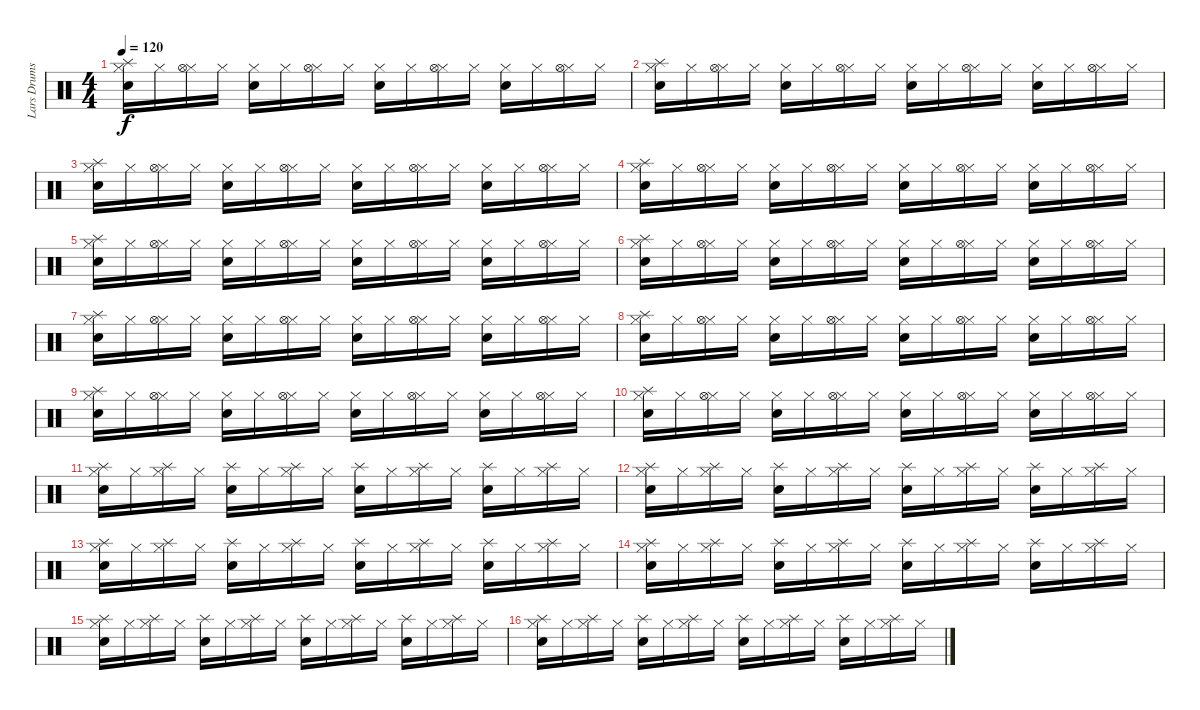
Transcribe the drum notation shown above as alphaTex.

\track ("Lars Drums" "Lars Drums") {instrument percussion}
\staff {score}
\articulation defaults
\ts (4 4)
\tempo 120
\clef neutral
\ks c
("Hi-Hat (closed)" "Snare (hit) 2" "Splash (hit)").16{dy f} "Hi-Hat (closed)".16 ("Hi-Hat (closed)" "Hi-Hat (open)").16 "Hi-Hat (closed)".16 ("Hi-Hat (closed)" "Snare (hit) 2").16 "Hi-Hat (closed)".16 ("Hi-Hat (closed)" "Hi-Hat (open)").16 "Hi-Hat (closed)".16 ("Hi-Hat (closed)" "Snare (hit) 2").16 "Hi-Hat (closed)".16 ("Hi-Hat (closed)" "Hi-Hat (open)").16 "Hi-Hat (closed)".16 ("Hi-Hat (closed)" "Snare (hit) 2").16 "Hi-Hat (closed)".16 ("Hi-Hat (closed)" "Hi-Hat (open)").16 "Hi-Hat (closed)".16 |
("Hi-Hat (closed)" "Snare (hit) 2" "Splash (hit)").16 "Hi-Hat (closed)".16 ("Hi-Hat (closed)" "Hi-Hat (open)").16 "Hi-Hat (closed)".16 ("Hi-Hat (closed)" "Snare (hit) 2").16 "Hi-Hat (closed)".16 ("Hi-Hat (closed)" "Hi-Hat (open)").16 "Hi-Hat (closed)".16 ("Hi-Hat (closed)" "Snare (hit) 2").16 "Hi-Hat (closed)".16 ("Hi-Hat (closed)" "Hi-Hat (open)").16 "Hi-Hat (closed)".16 ("Hi-Hat (closed)" "Snare (hit) 2").16 "Hi-Hat (closed)".16 ("Hi-Hat (closed)" "Hi-Hat (open)").16 "Hi-Hat (closed)".16 |
("Hi-Hat (closed)" "Snare (hit) 2" "Splash (hit)").16 "Hi-Hat (closed)".16 ("Hi-Hat (closed)" "Hi-Hat (open)").16 "Hi-Hat (closed)".16 ("Hi-Hat (closed)" "Snare (hit) 2").16 "Hi-Hat (closed)".16 ("Hi-Hat (closed)" "Hi-Hat (open)").16 "Hi-Hat (closed)".16 ("Hi-Hat (closed)" "Snare (hit) 2").16 "Hi-Hat (closed)".16 ("Hi-Hat (closed)" "Hi-Hat (open)").16 "Hi-Hat (closed)".16 ("Hi-Hat (closed)" "Snare (hit) 2").16 "Hi-Hat (closed)".16 ("Hi-Hat (closed)" "Hi-Hat (open)").16 "Hi-Hat (closed)".16 |
("Hi-Hat (closed)" "Snare (hit) 2" "Splash (hit)").16 "Hi-Hat (closed)".16 ("Hi-Hat (closed)" "Hi-Hat (open)").16 "Hi-Hat (closed)".16 ("Hi-Hat (closed)" "Snare (hit) 2").16 "Hi-Hat (closed)".16 ("Hi-Hat (closed)" "Hi-Hat (open)").16 "Hi-Hat (closed)".16 ("Hi-Hat (closed)" "Snare (hit) 2").16 "Hi-Hat (closed)".16 ("Hi-Hat (closed)" "Hi-Hat (open)").16 "Hi-Hat (closed)".16 ("Hi-Hat (closed)" "Snare (hit) 2").16 "Hi-Hat (closed)".16 ("Hi-Hat (closed)" "Hi-Hat (open)").16 "Hi-Hat (closed)".16 |
("Hi-Hat (closed)" "Snare (hit) 2" "Splash (hit)").16 "Hi-Hat (closed)".16 ("Hi-Hat (closed)" "Hi-Hat (open)").16 "Hi-Hat (closed)".16 ("Hi-Hat (closed)" "Snare (hit) 2").16 "Hi-Hat (closed)".16 ("Hi-Hat (closed)" "Hi-Hat (open)").16 "Hi-Hat (closed)".16 ("Hi-Hat (closed)" "Snare (hit) 2").16 "Hi-Hat (closed)".16 ("Hi-Hat (closed)" "Hi-Hat (open)").16 "Hi-Hat (closed)".16 ("Hi-Hat (closed)" "Snare (hit) 2").16 "Hi-Hat (closed)".16 ("Hi-Hat (closed)" "Hi-Hat (open)").16 "Hi-Hat (closed)".16 |
("Hi-Hat (closed)" "Snare (hit) 2" "Splash (hit)").16 "Hi-Hat (closed)".16 ("Hi-Hat (closed)" "Hi-Hat (open)").16 "Hi-Hat (closed)".16 ("Hi-Hat (closed)" "Snare (hit) 2").16 "Hi-Hat (closed)".16 ("Hi-Hat (closed)" "Hi-Hat (open)").16 "Hi-Hat (closed)".16 ("Hi-Hat (closed)" "Snare (hit) 2").16 "Hi-Hat (closed)".16 ("Hi-Hat (closed)" "Hi-Hat (open)").16 "Hi-Hat (closed)".16 ("Hi-Hat (closed)" "Snare (hit) 2").16 "Hi-Hat (closed)".16 ("Hi-Hat (closed)" "Hi-Hat (open)").16 "Hi-Hat (closed)".16 |
("Hi-Hat (closed)" "Snare (hit) 2" "Splash (hit)").16 "Hi-Hat (closed)".16 ("Hi-Hat (closed)" "Hi-Hat (open)").16 "Hi-Hat (closed)".16 ("Hi-Hat (closed)" "Snare (hit) 2").16 "Hi-Hat (closed)".16 ("Hi-Hat (closed)" "Hi-Hat (open)").16 "Hi-Hat (closed)".16 ("Hi-Hat (closed)" "Snare (hit) 2").16 "Hi-Hat (closed)".16 ("Hi-Hat (closed)" "Hi-Hat (open)").16 "Hi-Hat (closed)".16 ("Hi-Hat (closed)" "Snare (hit) 2").16 "Hi-Hat (closed)".16 ("Hi-Hat (closed)" "Hi-Hat (open)").16 "Hi-Hat (closed)".16 |
("Hi-Hat (closed)" "Snare (hit) 2" "Splash (hit)").16 "Hi-Hat (closed)".16 ("Hi-Hat (closed)" "Hi-Hat (open)").16 "Hi-Hat (closed)".16 ("Hi-Hat (closed)" "Snare (hit) 2").16 "Hi-Hat (closed)".16 ("Hi-Hat (closed)" "Hi-Hat (open)").16 "Hi-Hat (closed)".16 ("Hi-Hat (closed)" "Snare (hit) 2").16 "Hi-Hat (closed)".16 ("Hi-Hat (closed)" "Hi-Hat (open)").16 "Hi-Hat (closed)".16 ("Hi-Hat (closed)" "Snare (hit) 2").16 "Hi-Hat (closed)".16 ("Hi-Hat (closed)" "Hi-Hat (open)").16 "Hi-Hat (closed)".16 |
("Hi-Hat (closed)" "Snare (hit) 2" "Splash (hit)").16 "Hi-Hat (closed)".16 ("Hi-Hat (closed)" "Hi-Hat (open)").16 "Hi-Hat (closed)".16 ("Hi-Hat (closed)" "Snare (hit) 2").16 "Hi-Hat (closed)".16 ("Hi-Hat (closed)" "Hi-Hat (open)").16 "Hi-Hat (closed)".16 ("Hi-Hat (closed)" "Snare (hit) 2").16 "Hi-Hat (closed)".16 ("Hi-Hat (closed)" "Hi-Hat (open)").16 "Hi-Hat (closed)".16 ("Hi-Hat (closed)" "Snare (hit) 2").16 "Hi-Hat (closed)".16 ("Hi-Hat (closed)" "Hi-Hat (open)").16 "Hi-Hat (closed)".16 |
("Hi-Hat (closed)" "Snare (hit) 2" "Splash (hit)").16 "Hi-Hat (closed)".16 ("Hi-Hat (closed)" "Hi-Hat (open)").16 "Hi-Hat (closed)".16 ("Hi-Hat (closed)" "Snare (hit) 2").16 "Hi-Hat (closed)".16 ("Hi-Hat (closed)" "Hi-Hat (open)").16 "Hi-Hat (closed)".16 ("Hi-Hat (closed)" "Snare (hit) 2").16 "Hi-Hat (closed)".16 ("Hi-Hat (closed)" "Hi-Hat (open)").16 "Hi-Hat (closed)".16 ("Hi-Hat (closed)" "Snare (hit) 2").16 "Hi-Hat (closed)".16 ("Hi-Hat (closed)" "Hi-Hat (open)").16 "Hi-Hat (closed)".16 |
("Hi-Hat (closed)" "Snare (hit) 2" "Splash (hit)").16 "Hi-Hat (closed)".16 ("Hi-Hat (closed)" "Splash (hit)").16 "Hi-Hat (closed)".16 ("Splash (hit)" "Snare (hit) 2").16 "Hi-Hat (closed)".16 ("Hi-Hat (closed)" "Splash (hit)").16 "Hi-Hat (closed)".16 ("Splash (hit)" "Snare (hit) 2").16 "Hi-Hat (closed)".16 ("Hi-Hat (closed)" "Splash (hit)").16 "Hi-Hat (closed)".16 ("Splash (hit)" "Snare (hit) 2").16 "Hi-Hat (closed)".16 ("Hi-Hat (closed)" "Splash (hit)").16 "Hi-Hat (closed)".16 |
("Hi-Hat (closed)" "Snare (hit) 2" "Splash (hit)").16 "Hi-Hat (closed)".16 ("Hi-Hat (closed)" "Splash (hit)").16 "Hi-Hat (closed)".16 ("Splash (hit)" "Snare (hit) 2").16 "Hi-Hat (closed)".16 ("Hi-Hat (closed)" "Splash (hit)").16 "Hi-Hat (closed)".16 ("Splash (hit)" "Snare (hit) 2").16 "Hi-Hat (closed)".16 ("Hi-Hat (closed)" "Splash (hit)").16 "Hi-Hat (closed)".16 ("Splash (hit)" "Snare (hit) 2").16 "Hi-Hat (closed)".16 ("Hi-Hat (closed)" "Splash (hit)").16 "Hi-Hat (closed)".16 |
("Hi-Hat (closed)" "Snare (hit) 2" "Splash (hit)").16 "Hi-Hat (closed)".16 ("Hi-Hat (closed)" "Splash (hit)").16 "Hi-Hat (closed)".16 ("Splash (hit)" "Snare (hit) 2").16 "Hi-Hat (closed)".16 ("Hi-Hat (closed)" "Splash (hit)").16 "Hi-Hat (closed)".16 ("Splash (hit)" "Snare (hit) 2").16 "Hi-Hat (closed)".16 ("Hi-Hat (closed)" "Splash (hit)").16 "Hi-Hat (closed)".16 ("Splash (hit)" "Snare (hit) 2").16 "Hi-Hat (closed)".16 ("Hi-Hat (closed)" "Splash (hit)").16 "Hi-Hat (closed)".16 |
("Hi-Hat (closed)" "Snare (hit) 2" "Splash (hit)").16 "Hi-Hat (closed)".16 ("Hi-Hat (closed)" "Splash (hit)").16 "Hi-Hat (closed)".16 ("Splash (hit)" "Snare (hit) 2").16 "Hi-Hat (closed)".16 ("Hi-Hat (closed)" "Splash (hit)").16 "Hi-Hat (closed)".16 ("Splash (hit)" "Snare (hit) 2").16 "Hi-Hat (closed)".16 ("Hi-Hat (closed)" "Splash (hit)").16 "Hi-Hat (closed)".16 ("Splash (hit)" "Snare (hit) 2").16 "Hi-Hat (closed)".16 ("Hi-Hat (closed)" "Splash (hit)").16 "Hi-Hat (closed)".16 |
("Hi-Hat (closed)" "Snare (hit) 2" "Splash (hit)").16 "Hi-Hat (closed)".16 ("Hi-Hat (closed)" "Splash (hit)").16 "Hi-Hat (closed)".16 ("Splash (hit)" "Snare (hit) 2").16 "Hi-Hat (closed)".16 ("Hi-Hat (closed)" "Splash (hit)").16 "Hi-Hat (closed)".16 ("Splash (hit)" "Snare (hit) 2").16 "Hi-Hat (closed)".16 ("Hi-Hat (closed)" "Splash (hit)").16 "Hi-Hat (closed)".16 ("Splash (hit)" "Snare (hit) 2").16 "Hi-Hat (closed)".16 ("Hi-Hat (closed)" "Splash (hit)").16 "Hi-Hat (closed)".16 |
("Hi-Hat (closed)" "Snare (hit) 2" "Splash (hit)").16 "Hi-Hat (closed)".16 ("Hi-Hat (closed)" "Splash (hit)").16 "Hi-Hat (closed)".16 ("Splash (hit)" "Snare (hit) 2").16 "Hi-Hat (closed)".16 ("Hi-Hat (closed)" "Splash (hit)").16 "Hi-Hat (closed)".16 ("Splash (hit)" "Snare (hit) 2").16 "Hi-Hat (closed)".16 ("Hi-Hat (closed)" "Splash (hit)").16 "Hi-Hat (closed)".16 ("Splash (hit)" "Snare (hit) 2").16 "Hi-Hat (closed)".16 ("Hi-Hat (closed)" "Splash (hit)").16 "Hi-Hat (closed)".16
